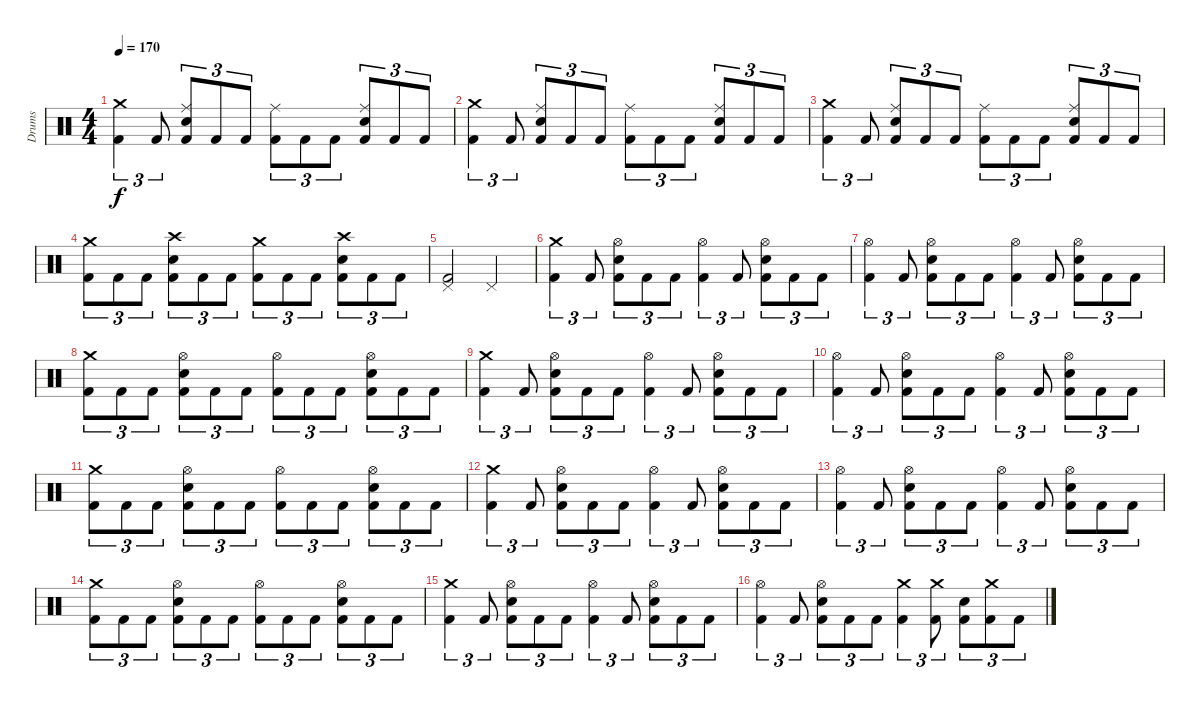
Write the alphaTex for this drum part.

\track ("Drums" "Drums") {instrument percussion}
\staff {score}
\articulation defaults
\ts (4 4)
\tempo 170
\clef neutral
\ks c
("Crash medium (hit)" "Kick (hit) 2").4{tu (3 2) dy f} "Kick (hit) 2".8{tu (3 2)} ("Ride (middle)" "Snare (hit) 2" "Kick (hit) 2").8{tu (3 2)} "Kick (hit) 2".8{tu (3 2)} "Kick (hit) 2".8{tu (3 2)} ("Ride (middle)" "Kick (hit) 2").8{tu (3 2)} "Kick (hit) 2".8{tu (3 2)} "Kick (hit) 2".8{tu (3 2)} ("Ride (middle)" "Snare (hit) 2" "Kick (hit) 2").8{tu (3 2)} "Kick (hit) 2".8{tu (3 2)} "Kick (hit) 2".8{tu (3 2)} |
("Crash medium (hit)" "Kick (hit) 2").4{tu (3 2)} "Kick (hit) 2".8{tu (3 2)} ("Ride (middle)" "Snare (hit) 2" "Kick (hit) 2").8{tu (3 2)} "Kick (hit) 2".8{tu (3 2)} "Kick (hit) 2".8{tu (3 2)} ("Ride (middle)" "Kick (hit) 2").8{tu (3 2)} "Kick (hit) 2".8{tu (3 2)} "Kick (hit) 2".8{tu (3 2)} ("Ride (middle)" "Snare (hit) 2" "Kick (hit) 2").8{tu (3 2)} "Kick (hit) 2".8{tu (3 2)} "Kick (hit) 2".8{tu (3 2)} |
("Crash medium (hit)" "Kick (hit) 2").4{tu (3 2)} "Kick (hit) 2".8{tu (3 2)} ("Ride (middle)" "Snare (hit) 2" "Kick (hit) 2").8{tu (3 2)} "Kick (hit) 2".8{tu (3 2)} "Kick (hit) 2".8{tu (3 2)} ("Ride (middle)" "Kick (hit) 2").8{tu (3 2)} "Kick (hit) 2".8{tu (3 2)} "Kick (hit) 2".8{tu (3 2)} ("Ride (middle)" "Snare (hit) 2" "Kick (hit) 2").8{tu (3 2)} "Kick (hit) 2".8{tu (3 2)} "Kick (hit) 2".8{tu (3 2)} |
("Crash medium (hit)" "Kick (hit) 2").8{tu (3 2)} "Kick (hit) 2".8{tu (3 2)} "Kick (hit) 2".8{tu (3 2)} ("Crash high (hit)" "Snare (hit) 2" "Kick (hit) 2").8{tu (3 2)} "Kick (hit) 2".8{tu (3 2)} "Kick (hit) 2".8{tu (3 2)} ("Crash medium (hit)" "Kick (hit) 2").8{tu (3 2)} "Kick (hit) 2".8{tu (3 2)} "Kick (hit) 2".8{tu (3 2)} ("Crash high (hit)" "Snare (hit) 2" "Kick (hit) 2").8{tu (3 2)} "Kick (hit) 2".8{tu (3 2)} "Kick (hit) 2".8{tu (3 2)} |
("Pedal Hi-Hat (hit)" "Kick (hit) 2").2 "Pedal Hi-Hat (hit)".2 |
("Crash medium (hit)" "Kick (hit) 2").4{tu (3 2)} "Kick (hit) 2".8{tu (3 2)} ("Hi-Hat (open)" "Snare (hit) 2" "Kick (hit) 2").8{tu (3 2)} "Kick (hit) 2".8{tu (3 2)} "Kick (hit) 2".8{tu (3 2)} ("Hi-Hat (open)" "Kick (hit) 2").4{tu (3 2)} "Kick (hit) 2".8{tu (3 2)} ("Hi-Hat (open)" "Snare (hit) 2" "Kick (hit) 2").8{tu (3 2)} "Kick (hit) 2".8{tu (3 2)} "Kick (hit) 2".8{tu (3 2)} |
("Hi-Hat (open)" "Kick (hit) 2").4{tu (3 2)} "Kick (hit) 2".8{tu (3 2)} ("Hi-Hat (open)" "Snare (hit) 2" "Kick (hit) 2").8{tu (3 2)} "Kick (hit) 2".8{tu (3 2)} "Kick (hit) 2".8{tu (3 2)} ("Hi-Hat (open)" "Kick (hit) 2").4{tu (3 2)} "Kick (hit) 2".8{tu (3 2)} ("Hi-Hat (open)" "Snare (hit) 2" "Kick (hit) 2").8{tu (3 2)} "Kick (hit) 2".8{tu (3 2)} "Kick (hit) 2".8{tu (3 2)} |
("Crash medium (hit)" "Kick (hit) 2").8{tu (3 2)} "Kick (hit) 2".8{tu (3 2)} "Kick (hit) 2".8{tu (3 2)} ("Hi-Hat (open)" "Snare (hit) 2" "Kick (hit) 2").8{tu (3 2)} "Kick (hit) 2".8{tu (3 2)} "Kick (hit) 2".8{tu (3 2)} ("Hi-Hat (open)" "Kick (hit) 2").8{tu (3 2)} "Kick (hit) 2".8{tu (3 2)} "Kick (hit) 2".8{tu (3 2)} ("Hi-Hat (open)" "Snare (hit) 2" "Kick (hit) 2").8{tu (3 2)} "Kick (hit) 2".8{tu (3 2)} "Kick (hit) 2".8{tu (3 2)} |
("Crash medium (hit)" "Kick (hit) 2").4{tu (3 2)} "Kick (hit) 2".8{tu (3 2)} ("Hi-Hat (open)" "Snare (hit) 2" "Kick (hit) 2").8{tu (3 2)} "Kick (hit) 2".8{tu (3 2)} "Kick (hit) 2".8{tu (3 2)} ("Hi-Hat (open)" "Kick (hit) 2").4{tu (3 2)} "Kick (hit) 2".8{tu (3 2)} ("Hi-Hat (open)" "Snare (hit) 2" "Kick (hit) 2").8{tu (3 2)} "Kick (hit) 2".8{tu (3 2)} "Kick (hit) 2".8{tu (3 2)} |
("Hi-Hat (open)" "Kick (hit) 2").4{tu (3 2)} "Kick (hit) 2".8{tu (3 2)} ("Hi-Hat (open)" "Snare (hit) 2" "Kick (hit) 2").8{tu (3 2)} "Kick (hit) 2".8{tu (3 2)} "Kick (hit) 2".8{tu (3 2)} ("Hi-Hat (open)" "Kick (hit) 2").4{tu (3 2)} "Kick (hit) 2".8{tu (3 2)} ("Hi-Hat (open)" "Snare (hit) 2" "Kick (hit) 2").8{tu (3 2)} "Kick (hit) 2".8{tu (3 2)} "Kick (hit) 2".8{tu (3 2)} |
("Crash medium (hit)" "Kick (hit) 2").8{tu (3 2)} "Kick (hit) 2".8{tu (3 2)} "Kick (hit) 2".8{tu (3 2)} ("Hi-Hat (open)" "Snare (hit) 2" "Kick (hit) 2").8{tu (3 2)} "Kick (hit) 2".8{tu (3 2)} "Kick (hit) 2".8{tu (3 2)} ("Hi-Hat (open)" "Kick (hit) 2").8{tu (3 2)} "Kick (hit) 2".8{tu (3 2)} "Kick (hit) 2".8{tu (3 2)} ("Hi-Hat (open)" "Snare (hit) 2" "Kick (hit) 2").8{tu (3 2)} "Kick (hit) 2".8{tu (3 2)} "Kick (hit) 2".8{tu (3 2)} |
("Crash medium (hit)" "Kick (hit) 2").4{tu (3 2)} "Kick (hit) 2".8{tu (3 2)} ("Hi-Hat (open)" "Snare (hit) 2" "Kick (hit) 2").8{tu (3 2)} "Kick (hit) 2".8{tu (3 2)} "Kick (hit) 2".8{tu (3 2)} ("Hi-Hat (open)" "Kick (hit) 2").4{tu (3 2)} "Kick (hit) 2".8{tu (3 2)} ("Hi-Hat (open)" "Snare (hit) 2" "Kick (hit) 2").8{tu (3 2)} "Kick (hit) 2".8{tu (3 2)} "Kick (hit) 2".8{tu (3 2)} |
("Hi-Hat (open)" "Kick (hit) 2").4{tu (3 2)} "Kick (hit) 2".8{tu (3 2)} ("Hi-Hat (open)" "Snare (hit) 2" "Kick (hit) 2").8{tu (3 2)} "Kick (hit) 2".8{tu (3 2)} "Kick (hit) 2".8{tu (3 2)} ("Hi-Hat (open)" "Kick (hit) 2").4{tu (3 2)} "Kick (hit) 2".8{tu (3 2)} ("Hi-Hat (open)" "Snare (hit) 2" "Kick (hit) 2").8{tu (3 2)} "Kick (hit) 2".8{tu (3 2)} "Kick (hit) 2".8{tu (3 2)} |
("Crash medium (hit)" "Kick (hit) 2").8{tu (3 2)} "Kick (hit) 2".8{tu (3 2)} "Kick (hit) 2".8{tu (3 2)} ("Hi-Hat (open)" "Snare (hit) 2" "Kick (hit) 2").8{tu (3 2)} "Kick (hit) 2".8{tu (3 2)} "Kick (hit) 2".8{tu (3 2)} ("Hi-Hat (open)" "Kick (hit) 2").8{tu (3 2)} "Kick (hit) 2".8{tu (3 2)} "Kick (hit) 2".8{tu (3 2)} ("Hi-Hat (open)" "Snare (hit) 2" "Kick (hit) 2").8{tu (3 2)} "Kick (hit) 2".8{tu (3 2)} "Kick (hit) 2".8{tu (3 2)} |
("Crash medium (hit)" "Kick (hit) 2").4{tu (3 2)} "Kick (hit) 2".8{tu (3 2)} ("Hi-Hat (open)" "Snare (hit) 2" "Kick (hit) 2").8{tu (3 2)} "Kick (hit) 2".8{tu (3 2)} "Kick (hit) 2".8{tu (3 2)} ("Hi-Hat (open)" "Kick (hit) 2").4{tu (3 2)} "Kick (hit) 2".8{tu (3 2)} ("Hi-Hat (open)" "Snare (hit) 2" "Kick (hit) 2").8{tu (3 2)} "Kick (hit) 2".8{tu (3 2)} "Kick (hit) 2".8{tu (3 2)} |
("Hi-Hat (open)" "Kick (hit) 2").4{tu (3 2)} "Kick (hit) 2".8{tu (3 2)} ("Hi-Hat (open)" "Snare (hit) 2" "Kick (hit) 2").8{tu (3 2)} "Kick (hit) 2".8{tu (3 2)} "Kick (hit) 2".8{tu (3 2)} ("Crash medium (hit)" "Kick (hit) 2").4{tu (3 2)} ("Crash medium (hit)" "Kick (hit) 2").8{tu (3 2)} ("Snare (hit) 2" "Kick (hit) 2").8{tu (3 2)} ("Crash medium (hit)" "Kick (hit) 2").8{tu (3 2)} "Kick (hit) 2".8{tu (3 2)}
